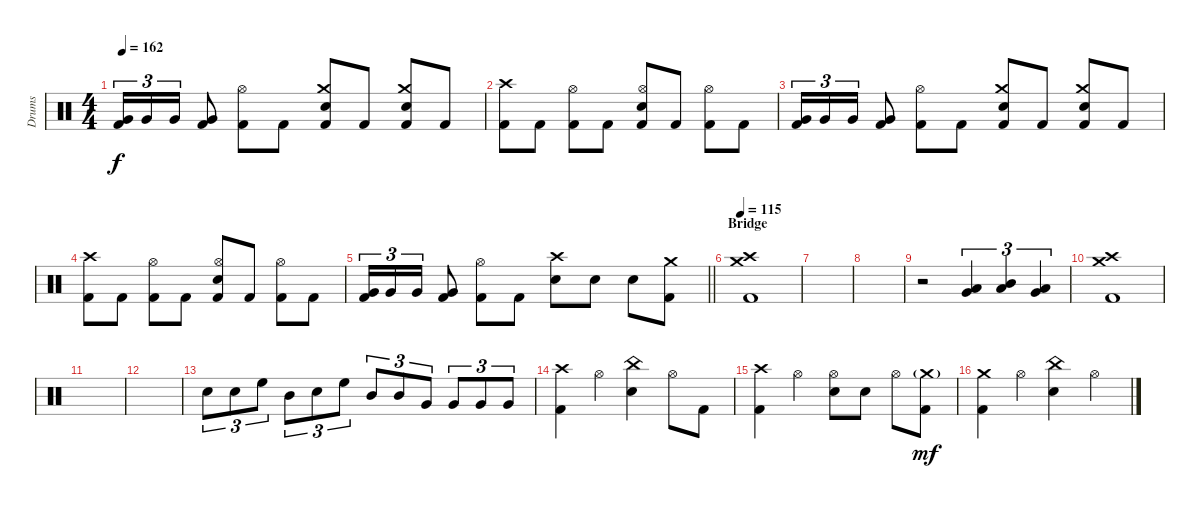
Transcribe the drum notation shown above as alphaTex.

\track ("Drums" "Drums") {instrument percussion}
\staff {score}
\articulation defaults
\ts (4 4)
\tempo 162
\clef neutral
\ks c
("Very Low Tom (hit)" "Kick (hit) 2").16{tu (3 2) dy f} "Very Low Tom (hit)".16{tu (3 2)} "Very Low Tom (hit)".16{tu (3 2)} ("Very Low Tom (hit)" "Kick (hit) 2").8 ("Hi-Hat (open)" "Kick (hit) 2").8 "Kick (hit) 2".8 ("Crash medium (hit)" "Electric Snare (hit)" "Kick (hit) 2").8 "Kick (hit) 2".8 ("Crash medium (hit)" "Electric Snare (hit)" "Kick (hit) 2").8 "Kick (hit) 2".8 |
("Crash high (hit)" "Kick (hit) 2").8 "Kick (hit) 2".8 ("Hi-Hat (open)" "Kick (hit) 2").8 "Kick (hit) 2".8 ("Hi-Hat (open)" "Electric Snare (hit)" "Kick (hit) 2").8 "Kick (hit) 2".8 ("Hi-Hat (open)" "Kick (hit) 2").8 "Kick (hit) 2".8 |
("Very Low Tom (hit)" "Kick (hit) 2").16{tu (3 2)} "Very Low Tom (hit)".16{tu (3 2)} "Very Low Tom (hit)".16{tu (3 2)} ("Very Low Tom (hit)" "Kick (hit) 2").8 ("Hi-Hat (open)" "Kick (hit) 2").8 "Kick (hit) 2".8 ("Crash medium (hit)" "Electric Snare (hit)" "Kick (hit) 2").8 "Kick (hit) 2".8 ("Crash medium (hit)" "Electric Snare (hit)" "Kick (hit) 2").8 "Kick (hit) 2".8 |
("Crash high (hit)" "Kick (hit) 2").8 "Kick (hit) 2".8 ("Hi-Hat (open)" "Kick (hit) 2").8 "Kick (hit) 2".8 ("Hi-Hat (open)" "Electric Snare (hit)" "Kick (hit) 2").8 "Kick (hit) 2".8 ("Hi-Hat (open)" "Kick (hit) 2").8 "Kick (hit) 2".8 |
\barLineRight lightlight
("Very Low Tom (hit)" "Kick (hit) 2").16{tu (3 2)} "Very Low Tom (hit)".16{tu (3 2)} "Very Low Tom (hit)".16{tu (3 2)} ("Very Low Tom (hit)" "Kick (hit) 2").8 ("Hi-Hat (open)" "Kick (hit) 2").8 "Kick (hit) 2".8 ("Crash high (hit)" "Electric Snare (hit)").8 "Electric Snare (hit)".8 "Electric Snare (hit)".8 ("Crash medium (hit)" "Kick (hit) 2").8 |
\section ("" "Bridge")
\tempo 115
("Crash high (hit)" "Crash medium (hit)" "Kick (hit) 2").1 |
|
|
r.2 ("Low Tom (hit)" "Very Low Tom (hit)").4{tu (3 2)} ("Mid Tom (hit)" "Low Tom (hit)").4{tu (3 2)} ("Low Tom (hit)" "Very Low Tom (hit)").4{tu (3 2)} |
("Crash high (hit)" "Crash medium (hit)" "Kick (hit) 2").1 |
|
|
"Electric Snare (hit)".8{tu (3 2)} "Electric Snare (hit)".8{tu (3 2)} "High Floor Tom (hit)".8{tu (3 2)} "Mid Tom (hit)".8{tu (3 2)} "Electric Snare (hit)".8{tu (3 2)} "High Floor Tom (hit)".8{tu (3 2)} "Mid Tom (hit)".8{tu (3 2)} "Mid Tom (hit)".8{tu (3 2)} "Very Low Tom (hit)".8{tu (3 2)} "Very Low Tom (hit)".8{tu (3 2)} "Very Low Tom (hit)".8{tu (3 2)} "Very Low Tom (hit)".8{tu (3 2)} |
("Crash high (hit)" "Kick (hit) 2").4 "Hi-Hat (open)".4 ("China (hit)" "Electric Snare (hit)").4 "Hi-Hat (open)".8 "Kick (hit) 2".8 |
("Crash high (hit)" "Kick (hit) 2").4 "Hi-Hat (open)".4 ("Hi-Hat (open)" "Electric Snare (hit)").8 "Electric Snare (hit)".8 "Hi-Hat (open)".8 ("Crash medium (hit)"{g} "Kick (hit) 2").8{dy mf} |
("Crash medium (hit)" "Kick (hit) 2").4 "Hi-Hat (open)".4 ("China (hit)" "Electric Snare (hit)").4 "Hi-Hat (open)".4
